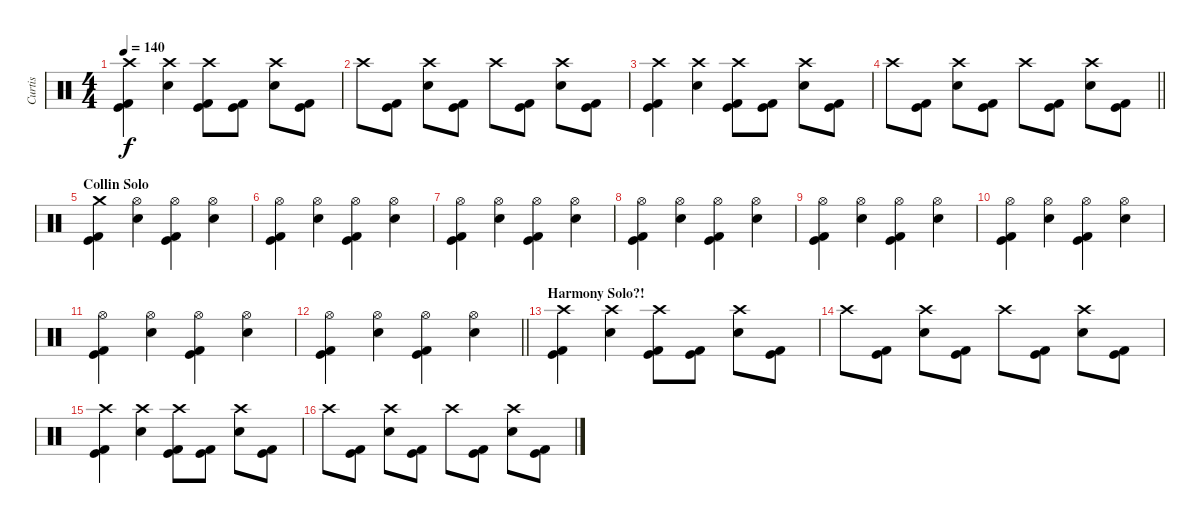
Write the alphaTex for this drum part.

\track ("Curtis" "Curtis") {instrument percussion}
\staff {score}
\articulation defaults
\ts (4 4)
\tempo 140
\clef neutral
\ks c
("Crash high (hit)" "Kick (hit) 2" "Kick (hit)").4{dy f} ("Crash high (hit)" "Electric Snare (hit)").4 ("Crash high (hit)" "Kick (hit) 2" "Kick (hit)").8 ("Kick (hit) 2" "Kick (hit)").8 ("Crash high (hit)" "Electric Snare (hit)").8 ("Kick (hit) 2" "Kick (hit)").8 |
"Crash high (hit)".8 ("Kick (hit) 2" "Kick (hit)").8 ("Crash high (hit)" "Electric Snare (hit)").8 ("Kick (hit) 2" "Kick (hit)").8 "Crash high (hit)".8 ("Kick (hit) 2" "Kick (hit)").8 ("Crash high (hit)" "Electric Snare (hit)").8 ("Kick (hit) 2" "Kick (hit)").8 |
("Crash high (hit)" "Kick (hit) 2" "Kick (hit)").4 ("Crash high (hit)" "Electric Snare (hit)").4 ("Crash high (hit)" "Kick (hit) 2" "Kick (hit)").8 ("Kick (hit) 2" "Kick (hit)").8 ("Crash high (hit)" "Electric Snare (hit)").8 ("Kick (hit) 2" "Kick (hit)").8 |
\barLineRight lightlight "Crash high (hit)".8
("Kick (hit) 2" "Kick (hit)").8 ("Crash high (hit)" "Electric Snare (hit)").8 ("Kick (hit) 2" "Kick (hit)").8 "Crash high (hit)".8 ("Kick (hit) 2" "Kick (hit)").8 ("Crash high (hit)" "Electric Snare (hit)").8 ("Kick (hit) 2" "Kick (hit)").8 |
\section ("" "Collin Solo")
("Crash medium (hit)" "Kick (hit)" "Kick (hit) 2").4 ("Hi-Hat (open)" "Electric Snare (hit)").4 ("Hi-Hat (open)" "Kick (hit)" "Kick (hit) 2").4 ("Hi-Hat (open)" "Electric Snare (hit)").4 |
("Hi-Hat (open)" "Kick (hit)" "Kick (hit) 2").4 ("Hi-Hat (open)" "Electric Snare (hit)").4 ("Hi-Hat (open)" "Kick (hit)" "Kick (hit) 2").4 ("Hi-Hat (open)" "Electric Snare (hit)").4 |
("Hi-Hat (open)" "Kick (hit)" "Kick (hit) 2").4 ("Hi-Hat (open)" "Electric Snare (hit)").4 ("Hi-Hat (open)" "Kick (hit)" "Kick (hit) 2").4 ("Hi-Hat (open)" "Electric Snare (hit)").4 |
("Hi-Hat (open)" "Kick (hit)" "Kick (hit) 2").4 ("Hi-Hat (open)" "Electric Snare (hit)").4 ("Hi-Hat (open)" "Kick (hit)" "Kick (hit) 2").4 ("Hi-Hat (open)" "Electric Snare (hit)").4 |
("Hi-Hat (open)" "Kick (hit)" "Kick (hit) 2").4 ("Hi-Hat (open)" "Electric Snare (hit)").4 ("Hi-Hat (open)" "Kick (hit)" "Kick (hit) 2").4 ("Hi-Hat (open)" "Electric Snare (hit)").4 |
("Hi-Hat (open)" "Kick (hit)" "Kick (hit) 2").4 ("Hi-Hat (open)" "Electric Snare (hit)").4 ("Hi-Hat (open)" "Kick (hit)" "Kick (hit) 2").4 ("Hi-Hat (open)" "Electric Snare (hit)").4 |
("Hi-Hat (open)" "Kick (hit)" "Kick (hit) 2").4 ("Hi-Hat (open)" "Electric Snare (hit)").4 ("Hi-Hat (open)" "Kick (hit)" "Kick (hit) 2").4 ("Hi-Hat (open)" "Electric Snare (hit)").4 |
\barLineRight lightlight
("Hi-Hat (open)" "Kick (hit)" "Kick (hit) 2").4 ("Hi-Hat (open)" "Electric Snare (hit)").4 ("Hi-Hat (open)" "Kick (hit)" "Kick (hit) 2").4 ("Hi-Hat (open)" "Electric Snare (hit)").4 |
\section ("" "Harmony Solo?!")
("Crash high (hit)" "Kick (hit) 2" "Kick (hit)").4 ("Crash high (hit)" "Electric Snare (hit)").4 ("Crash high (hit)" "Kick (hit) 2" "Kick (hit)").8 ("Kick (hit) 2" "Kick (hit)").8 ("Crash high (hit)" "Electric Snare (hit)").8 ("Kick (hit) 2" "Kick (hit)").8 |
"Crash high (hit)".8 ("Kick (hit) 2" "Kick (hit)").8 ("Crash high (hit)" "Electric Snare (hit)").8 ("Kick (hit) 2" "Kick (hit)").8 "Crash high (hit)".8 ("Kick (hit) 2" "Kick (hit)").8 ("Crash high (hit)" "Electric Snare (hit)").8 ("Kick (hit) 2" "Kick (hit)").8 |
("Crash high (hit)" "Kick (hit) 2" "Kick (hit)").4 ("Crash high (hit)" "Electric Snare (hit)").4 ("Crash high (hit)" "Kick (hit) 2" "Kick (hit)").8 ("Kick (hit) 2" "Kick (hit)").8 ("Crash high (hit)" "Electric Snare (hit)").8 ("Kick (hit) 2" "Kick (hit)").8 |
"Crash high (hit)".8 ("Kick (hit) 2" "Kick (hit)").8 ("Crash high (hit)" "Electric Snare (hit)").8 ("Kick (hit) 2" "Kick (hit)").8 "Crash high (hit)".8 ("Kick (hit) 2" "Kick (hit)").8 ("Crash high (hit)" "Electric Snare (hit)").8 ("Kick (hit) 2" "Kick (hit)").8
